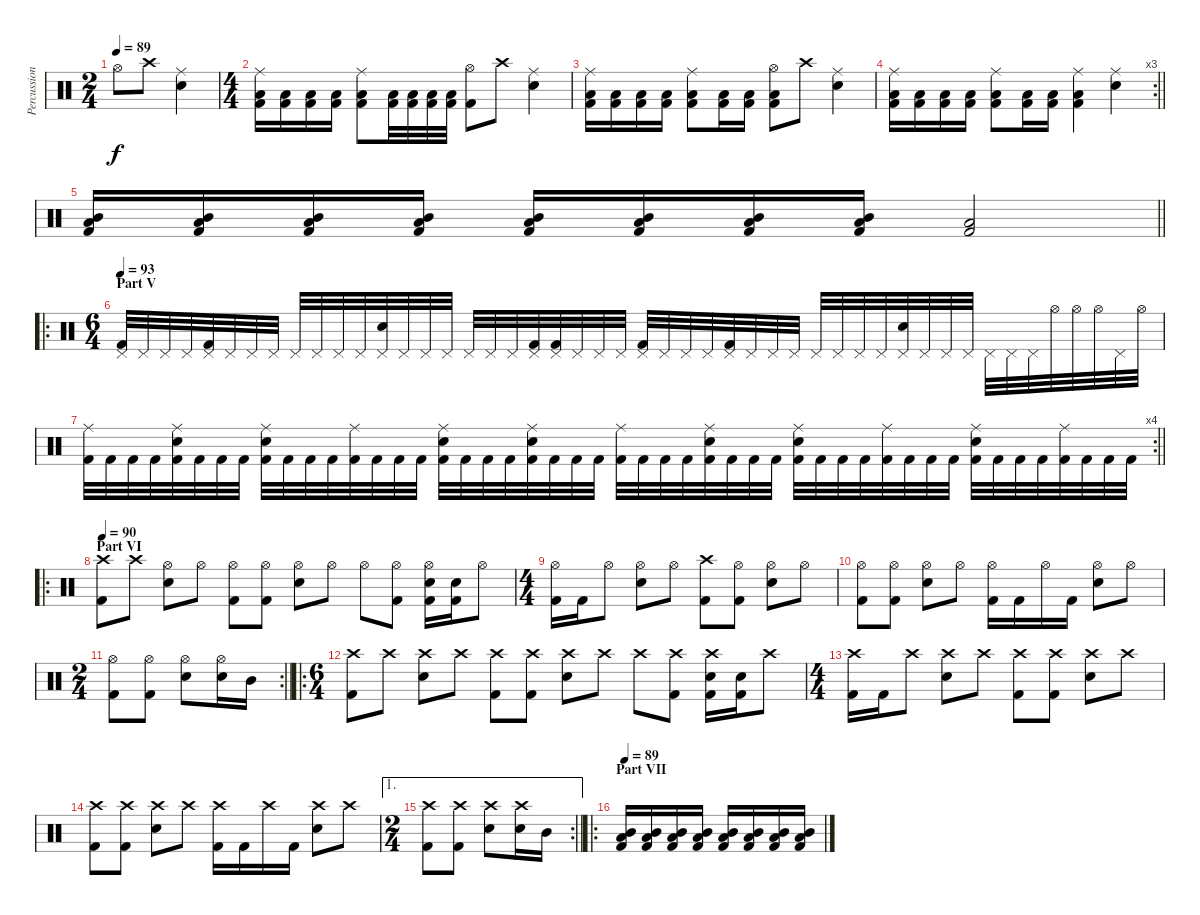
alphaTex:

\track ("Percussions" "Percussion") {instrument percussion}
\staff {score}
\articulation defaults
\ts (2 4)
\tempo 89
\clef neutral
\ks c "Hi-Hat (open)".8{dy f} "Crash high (hit)".8
("Ride (middle)" "Snare (hit) 2").4 |
\ts (4 4)
("Ride (middle)" "Low Tom (hit)" "Kick (hit) 2").16 ("Low Tom (hit)" "Kick (hit) 2").16 ("Low Tom (hit)" "Kick (hit) 2").16 ("Low Tom (hit)" "Kick (hit) 2").16 ("Ride (middle)" "Low Tom (hit)" "Kick (hit) 2").8 ("Low Tom (hit)" "Kick (hit) 2").32 ("Low Tom (hit)" "Kick (hit) 2").32 ("Low Tom (hit)" "Kick (hit) 2").32 ("Low Tom (hit)" "Kick (hit) 2").32 ("Hi-Hat (open)" "Kick (hit) 2").8 "Crash high (hit)".8 ("Ride (middle)" "Snare (hit) 2").4 |
("Ride (middle)" "Low Tom (hit)" "Kick (hit) 2").16 ("Low Tom (hit)" "Kick (hit) 2").16 ("Low Tom (hit)" "Kick (hit) 2").16 ("Low Tom (hit)" "Kick (hit) 2").16 ("Ride (middle)" "Low Tom (hit)" "Kick (hit) 2").8 ("Low Tom (hit)" "Kick (hit) 2").16 ("Low Tom (hit)" "Kick (hit) 2").16 ("Hi-Hat (open)" "Low Tom (hit)" "Kick (hit) 2").8 "Crash high (hit)".8 ("Ride (middle)" "Snare (hit) 2").4 |
\rc 3
\barLineRight lightlight
("Ride (middle)" "Low Tom (hit)" "Kick (hit) 2").16 ("Low Tom (hit)" "Kick (hit) 2").16 ("Low Tom (hit)" "Kick (hit) 2").16 ("Low Tom (hit)" "Kick (hit) 2").16 ("Ride (middle)" "Low Tom (hit)" "Kick (hit) 2").8 ("Low Tom (hit)" "Kick (hit) 2").16 ("Low Tom (hit)" "Kick (hit) 2").16 ("Ride (middle)" "Low Tom (hit)" "Kick (hit) 2").4 ("Ride (middle)" "Snare (hit) 2").4 |
\barLineRight lightlight
("Low Tom (hit)" "Mid Tom (hit)" "Kick (hit) 2").16 ("Low Tom (hit)" "Mid Tom (hit)" "Kick (hit) 2").16 ("Low Tom (hit)" "Mid Tom (hit)" "Kick (hit) 2").16 ("Low Tom (hit)" "Mid Tom (hit)" "Kick (hit) 2").16 ("Low Tom (hit)" "Mid Tom (hit)" "Kick (hit) 2").16 ("Low Tom (hit)" "Mid Tom (hit)" "Kick (hit) 2").16 ("Low Tom (hit)" "Mid Tom (hit)" "Kick (hit) 2").16 ("Low Tom (hit)" "Mid Tom (hit)" "Kick (hit) 2").16 ("Low Tom (hit)" "Kick (hit) 2").2 |
\ro
\ts (6 4)
\section ("" "Part V")
\tempo 93
("Pedal Hi-Hat (hit)" "Kick (hit) 2").32 "Pedal Hi-Hat (hit)".32 "Pedal Hi-Hat (hit)".32 "Pedal Hi-Hat (hit)".32 ("Pedal Hi-Hat (hit)" "Kick (hit) 2").32 "Pedal Hi-Hat (hit)".32 "Pedal Hi-Hat (hit)".32 "Pedal Hi-Hat (hit)".32 "Pedal Hi-Hat (hit)".32 "Pedal Hi-Hat (hit)".32 "Pedal Hi-Hat (hit)".32 "Pedal Hi-Hat (hit)".32 ("Pedal Hi-Hat (hit)" "Snare (hit) 2").32 "Pedal Hi-Hat (hit)".32 "Pedal Hi-Hat (hit)".32 "Pedal Hi-Hat (hit)".32 "Pedal Hi-Hat (hit)".32 "Pedal Hi-Hat (hit)".32 "Pedal Hi-Hat (hit)".32 ("Pedal Hi-Hat (hit)" "Kick (hit) 2").32 ("Pedal Hi-Hat (hit)" "Kick (hit) 2").32 "Pedal Hi-Hat (hit)".32 "Pedal Hi-Hat (hit)".32 "Pedal Hi-Hat (hit)".32 ("Pedal Hi-Hat (hit)" "Kick (hit) 2").32 "Pedal Hi-Hat (hit)".32 "Pedal Hi-Hat (hit)".32 "Pedal Hi-Hat (hit)".32 ("Pedal Hi-Hat (hit)" "Kick (hit) 2").32 "Pedal Hi-Hat (hit)".32 "Pedal Hi-Hat (hit)".32 "Pedal Hi-Hat (hit)".32 "Pedal Hi-Hat (hit)".32 "Pedal Hi-Hat (hit)".32 "Pedal Hi-Hat (hit)".32 "Pedal Hi-Hat (hit)".32 ("Pedal Hi-Hat (hit)" "Snare (hit) 2").32 "Pedal Hi-Hat (hit)".32 "Pedal Hi-Hat (hit)".32 "Pedal Hi-Hat (hit)".32 "Pedal Hi-Hat (hit)".32 "Pedal Hi-Hat (hit)".32 "Pedal Hi-Hat (hit)".32 "Hi-Hat (open)".32 "Hi-Hat (open)".32 "Hi-Hat (open)".32 "Pedal Hi-Hat (hit)".32 "Hi-Hat (open)".32 |
\rc 4
\barLineRight lightlight
("Ride (middle)" "Kick (hit) 2").32 "Kick (hit) 2".32 "Kick (hit) 2".32 "Kick (hit) 2".32 ("Ride (middle)" "Snare (hit) 2" "Kick (hit) 2").32 "Kick (hit) 2".32 "Kick (hit) 2".32 "Kick (hit) 2".32 ("Ride (middle)" "Snare (hit) 2" "Kick (hit) 2").32 "Kick (hit) 2".32 "Kick (hit) 2".32 "Kick (hit) 2".32 ("Ride (middle)" "Kick (hit) 2").32 "Kick (hit) 2".32 "Kick (hit) 2".32 "Kick (hit) 2".32 ("Ride (middle)" "Snare (hit) 2" "Kick (hit) 2").32 "Kick (hit) 2".32 "Kick (hit) 2".32 "Kick (hit) 2".32 ("Ride (middle)" "Snare (hit) 2" "Kick (hit) 2").32 "Kick (hit) 2".32 "Kick (hit) 2".32 "Kick (hit) 2".32 ("Ride (middle)" "Kick (hit) 2").32 "Kick (hit) 2".32 "Kick (hit) 2".32 "Kick (hit) 2".32 ("Ride (middle)" "Snare (hit) 2" "Kick (hit) 2").32 "Kick (hit) 2".32 "Kick (hit) 2".32 "Kick (hit) 2".32 ("Ride (middle)" "Snare (hit) 2" "Kick (hit) 2").32 "Kick (hit) 2".32 "Kick (hit) 2".32 "Kick (hit) 2".32 ("Ride (middle)" "Kick (hit) 2").32 "Kick (hit) 2".32 "Kick (hit) 2".32 "Kick (hit) 2".32 ("Ride (middle)" "Snare (hit) 2" "Kick (hit) 2").32 "Kick (hit) 2".32 "Kick (hit) 2".32 "Kick (hit) 2".32 ("Ride (middle)" "Kick (hit) 2").32 "Kick (hit) 2".32 "Kick (hit) 2".32 "Kick (hit) 2".32 |
\ro
\section ("" "Part VI")
\tempo 90
("Crash high (hit)" "Kick (hit) 2").8 "Crash high (hit)".8 ("Hi-Hat (open)" "Snare (hit) 2").8 "Hi-Hat (open)".8 ("Hi-Hat (open)" "Kick (hit) 2").8 ("Hi-Hat (open)" "Kick (hit) 2").8 ("Hi-Hat (open)" "Snare (hit) 2").8 "Hi-Hat (open)".8 "Hi-Hat (open)".8 ("Hi-Hat (open)" "Kick (hit) 2").8 ("Hi-Hat (open)" "Snare (hit) 2" "Kick (hit) 2").16 ("Snare (hit) 2" "Kick (hit) 2").16 "Hi-Hat (open)".8 |
\ts (4 4)
("Hi-Hat (open)" "Kick (hit) 2").16 "Kick (hit) 2".16 "Hi-Hat (open)".8 ("Hi-Hat (open)" "Snare (hit) 2").8 "Hi-Hat (open)".8 ("Crash high (hit)" "Kick (hit) 2").8 ("Hi-Hat (open)" "Kick (hit) 2").8 ("Hi-Hat (open)" "Snare (hit) 2").8 "Hi-Hat (open)".8 |
("Hi-Hat (open)" "Kick (hit) 2").8 ("Hi-Hat (open)" "Kick (hit) 2").8 ("Hi-Hat (open)" "Snare (hit) 2").8 "Hi-Hat (open)".8 ("Hi-Hat (open)" "Kick (hit) 2").16 "Kick (hit) 2".16 "Hi-Hat (open)".16 "Kick (hit) 2".16 ("Hi-Hat (open)" "Snare (hit) 2").8 "Hi-Hat (open)".8 |
\rc 2
\ts (2 4)
\barLineRight lightlight
("Hi-Hat (open)" "Kick (hit) 2").8 ("Hi-Hat (open)" "Kick (hit) 2").8 ("Hi-Hat (open)" "Snare (hit) 2").8 ("Hi-Hat (open)" "Snare (hit) 2").16 "Mid Tom (hit)".16 |
\ro
\ts (6 4)
("Crash high (hit)" "Kick (hit) 2").8 "Crash high (hit)".8 ("Crash high (hit)" "Snare (hit) 2").8 "Crash high (hit)".8 ("Crash high (hit)" "Kick (hit) 2").8 ("Crash high (hit)" "Kick (hit) 2").8 ("Crash high (hit)" "Snare (hit) 2").8 "Crash high (hit)".8 "Crash high (hit)".8 ("Crash high (hit)" "Kick (hit) 2").8 ("Crash high (hit)" "Snare (hit) 2" "Kick (hit) 2").16 ("Snare (hit) 2" "Kick (hit) 2").16 "Crash high (hit)".8 |
\ts (4 4)
("Crash high (hit)" "Kick (hit) 2").16 "Kick (hit) 2".16 "Crash high (hit)".8 ("Crash high (hit)" "Snare (hit) 2").8 "Crash high (hit)".8 ("Crash high (hit)" "Kick (hit) 2").8 ("Crash high (hit)" "Kick (hit) 2").8 ("Crash high (hit)" "Snare (hit) 2").8 "Crash high (hit)".8 |
("Crash high (hit)" "Kick (hit) 2").8 ("Crash high (hit)" "Kick (hit) 2").8 ("Crash high (hit)" "Snare (hit) 2").8 "Crash high (hit)".8 ("Crash high (hit)" "Kick (hit) 2").16 "Kick (hit) 2".16 "Crash high (hit)".16 "Kick (hit) 2".16 ("Crash high (hit)" "Snare (hit) 2").8 "Crash high (hit)".8 |
\ae 1
\rc 2
\ts (2 4)
\barLineRight lightlight
("Crash high (hit)" "Kick (hit) 2").8 ("Crash high (hit)" "Kick (hit) 2").8 ("Crash high (hit)" "Snare (hit) 2").8 ("Crash high (hit)" "Snare (hit) 2").16 "Mid Tom (hit)".16 |
\ro
\section ("" "Part VII")
\tempo 89
("Low Tom (hit)" "Mid Tom (hit)" "Kick (hit) 2").16 ("Low Tom (hit)" "Mid Tom (hit)" "Kick (hit) 2").16 ("Low Tom (hit)" "Mid Tom (hit)" "Kick (hit) 2").16 ("Low Tom (hit)" "Mid Tom (hit)" "Kick (hit) 2").16 ("Low Tom (hit)" "Mid Tom (hit)" "Kick (hit) 2").16 ("Low Tom (hit)" "Mid Tom (hit)" "Kick (hit) 2").16 ("Low Tom (hit)" "Mid Tom (hit)" "Kick (hit) 2").16 ("Low Tom (hit)" "Mid Tom (hit)" "Kick (hit) 2").16
